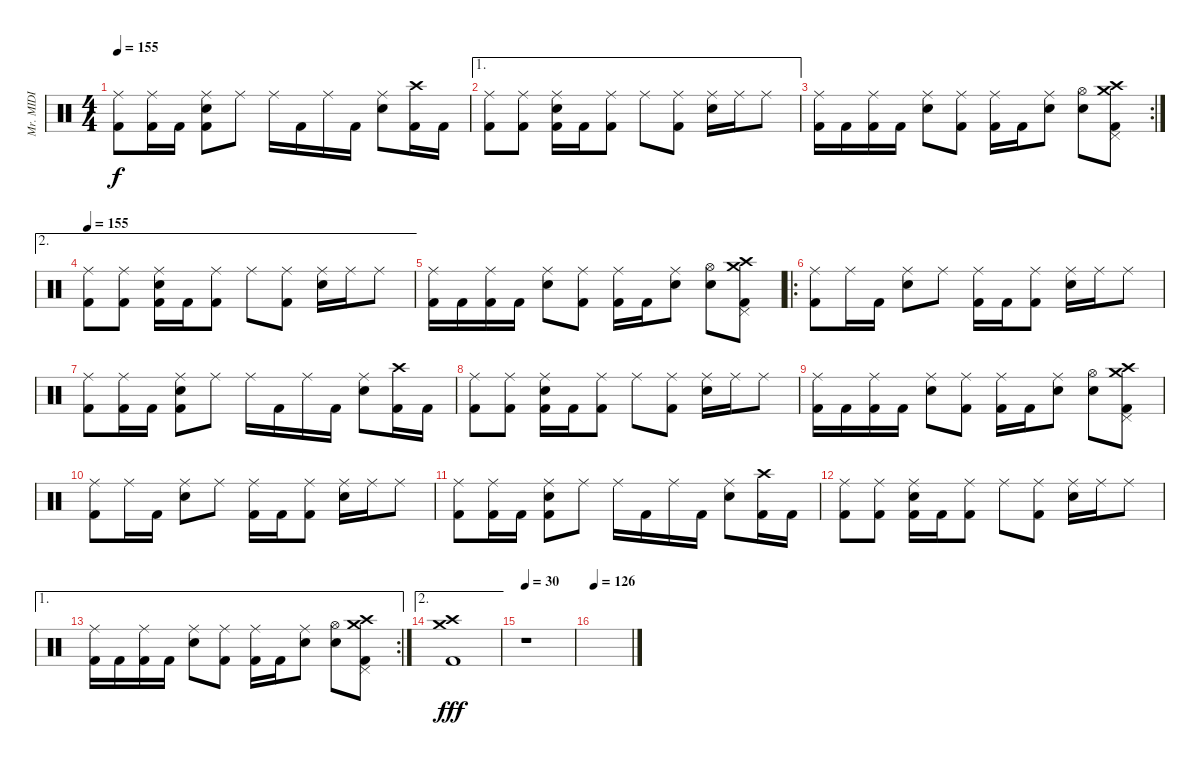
\track ("Mr. MIDI" "Mr. MIDI") {instrument percussion}
\staff {score}
\articulation defaults
\ts (4 4)
\tempo 155
\clef neutral
\ks c
("Ride (middle)" "Kick (hit) 2").8{dy f} ("Ride (middle)" "Kick (hit) 2").16 "Kick (hit) 2".16 ("Ride (middle)" "Snare (hit) 2" "Kick (hit) 2").8 "Ride (middle)".8 "Ride (middle)".16 "Kick (hit) 2".16 "Ride (middle)".16 "Kick (hit) 2".16 ("Ride (middle)" "Snare (hit) 2").8 ("Crash high (hit)" "Kick (hit) 2").16 "Kick (hit) 2".16 |
\ae 1
("Ride (middle)" "Kick (hit) 2").8 ("Ride (middle)" "Kick (hit) 2").8 ("Ride (middle)" "Snare (hit) 2" "Kick (hit) 2").16 "Kick (hit) 2".16 ("Ride (middle)" "Kick (hit) 2").8 "Ride (middle)".8 ("Ride (middle)" "Kick (hit) 2").8 ("Ride (middle)" "Snare (hit) 2").16 "Ride (middle)".16 "Ride (middle)".8 |
\rc 2
("Ride (middle)" "Kick (hit) 2").16 "Kick (hit) 2".16 ("Ride (middle)" "Kick (hit) 2").16 "Kick (hit) 2".16 ("Ride (middle)" "Snare (hit) 2").8 ("Ride (middle)" "Kick (hit) 2").8 ("Ride (middle)" "Kick (hit) 2").16 "Kick (hit) 2".16 ("Ride (middle)" "Snare (hit) 2").8 ("Hi-Hat (open)" "Snare (hit) 2").8 ("Crash high (hit)" "Crash medium (hit)" "Pedal Hi-Hat (hit)" "Kick (hit) 2").8 |
\ae 2
\tempo 155
("Ride (middle)" "Kick (hit) 2").8{volume 13} ("Ride (middle)" "Kick (hit) 2").8 ("Ride (middle)" "Snare (hit) 2" "Kick (hit) 2").16 "Kick (hit) 2".16 ("Ride (middle)" "Kick (hit) 2").8 "Ride (middle)".8 ("Ride (middle)" "Kick (hit) 2").8 ("Ride (middle)" "Snare (hit) 2").16 "Ride (middle)".16 "Ride (middle)".8 |
("Ride (middle)" "Kick (hit) 2").16 "Kick (hit) 2".16 ("Ride (middle)" "Kick (hit) 2").16 "Kick (hit) 2".16 ("Ride (middle)" "Snare (hit) 2").8 ("Ride (middle)" "Kick (hit) 2").8 ("Ride (middle)" "Kick (hit) 2").16 "Kick (hit) 2".16 ("Ride (middle)" "Snare (hit) 2").8 ("Hi-Hat (open)" "Snare (hit) 2").8 ("Crash high (hit)" "Crash medium (hit)" "Pedal Hi-Hat (hit)" "Kick (hit) 2").8 |
\ro
("Ride (middle)" "Kick (hit) 2").8{volume 16} "Ride (middle)".16 "Kick (hit) 2".16 ("Ride (middle)" "Snare (hit) 2").8 "Ride (middle)".8 ("Ride (middle)" "Kick (hit) 2").16 "Kick (hit) 2".16 ("Ride (middle)" "Kick (hit) 2").8 ("Ride (middle)" "Snare (hit) 2").16 "Ride (middle)".16 "Ride (middle)".8 |
("Ride (middle)" "Kick (hit) 2").8 ("Ride (middle)" "Kick (hit) 2").16 "Kick (hit) 2".16 ("Ride (middle)" "Snare (hit) 2" "Kick (hit) 2").8 "Ride (middle)".8 "Ride (middle)".16 "Kick (hit) 2".16 "Ride (middle)".16 "Kick (hit) 2".16 ("Ride (middle)" "Snare (hit) 2").8 ("Crash high (hit)" "Kick (hit) 2").16 "Kick (hit) 2".16 |
("Ride (middle)" "Kick (hit) 2").8 ("Ride (middle)" "Kick (hit) 2").8 ("Ride (middle)" "Snare (hit) 2" "Kick (hit) 2").16 "Kick (hit) 2".16 ("Ride (middle)" "Kick (hit) 2").8 "Ride (middle)".8 ("Ride (middle)" "Kick (hit) 2").8 ("Ride (middle)" "Snare (hit) 2").16 "Ride (middle)".16 "Ride (middle)".8 |
("Ride (middle)" "Kick (hit) 2").16 "Kick (hit) 2".16 ("Ride (middle)" "Kick (hit) 2").16 "Kick (hit) 2".16 ("Ride (middle)" "Snare (hit) 2").8 ("Ride (middle)" "Kick (hit) 2").8 ("Ride (middle)" "Kick (hit) 2").16 "Kick (hit) 2".16 ("Ride (middle)" "Snare (hit) 2").8 ("Hi-Hat (open)" "Snare (hit) 2").8 ("Crash high (hit)" "Crash medium (hit)" "Pedal Hi-Hat (hit)" "Kick (hit) 2").8 |
("Ride (middle)" "Kick (hit) 2").8{volume 16} "Ride (middle)".16 "Kick (hit) 2".16 ("Ride (middle)" "Snare (hit) 2").8 "Ride (middle)".8 ("Ride (middle)" "Kick (hit) 2").16 "Kick (hit) 2".16 ("Ride (middle)" "Kick (hit) 2").8 ("Ride (middle)" "Snare (hit) 2").16 "Ride (middle)".16 "Ride (middle)".8 |
("Ride (middle)" "Kick (hit) 2").8 ("Ride (middle)" "Kick (hit) 2").16 "Kick (hit) 2".16 ("Ride (middle)" "Snare (hit) 2" "Kick (hit) 2").8 "Ride (middle)".8 "Ride (middle)".16 "Kick (hit) 2".16 "Ride (middle)".16 "Kick (hit) 2".16 ("Ride (middle)" "Snare (hit) 2").8 ("Crash high (hit)" "Kick (hit) 2").16 "Kick (hit) 2".16 |
("Ride (middle)" "Kick (hit) 2").8 ("Ride (middle)" "Kick (hit) 2").8 ("Ride (middle)" "Snare (hit) 2" "Kick (hit) 2").16 "Kick (hit) 2".16 ("Ride (middle)" "Kick (hit) 2").8 "Ride (middle)".8 ("Ride (middle)" "Kick (hit) 2").8 ("Ride (middle)" "Snare (hit) 2").16 "Ride (middle)".16 "Ride (middle)".8 |
\ae 1
\rc 2
("Ride (middle)" "Kick (hit) 2").16 "Kick (hit) 2".16 ("Ride (middle)" "Kick (hit) 2").16 "Kick (hit) 2".16 ("Ride (middle)" "Snare (hit) 2").8 ("Ride (middle)" "Kick (hit) 2").8 ("Ride (middle)" "Kick (hit) 2").16 "Kick (hit) 2".16 ("Ride (middle)" "Snare (hit) 2").8 ("Hi-Hat (open)" "Snare (hit) 2").8 ("Crash high (hit)" "Crash medium (hit)" "Pedal Hi-Hat (hit)" "Kick (hit) 2").8 |
\ae 2
("Crash high (hit)" "Crash medium (hit)" "Kick (hit) 2").1{dy fff} |
\tempo 30
r.1 |
\tempo 126
